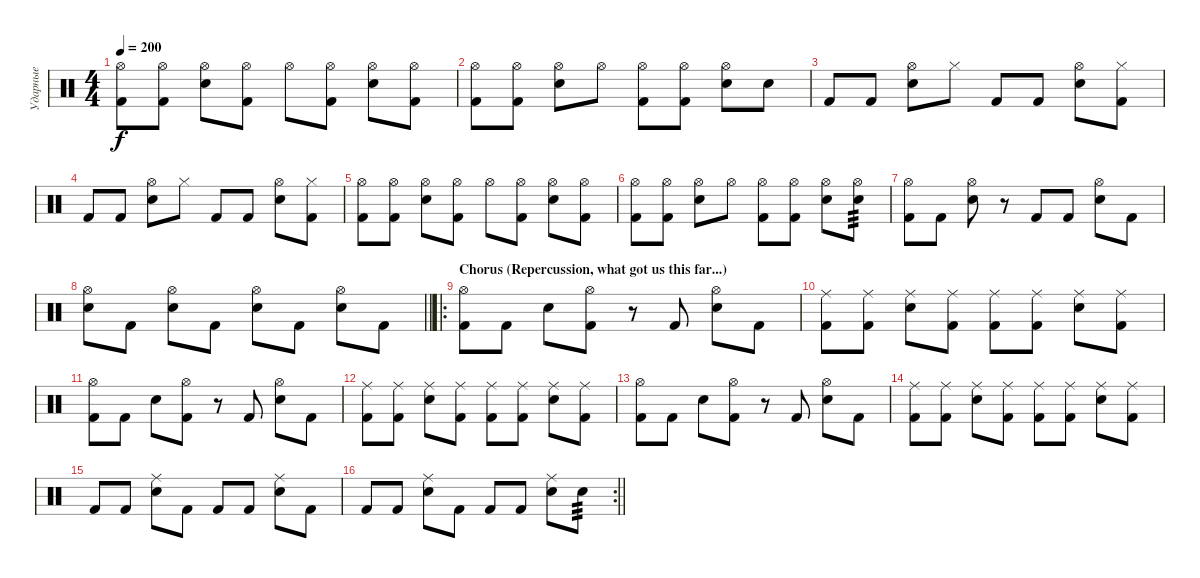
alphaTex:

\track ("Ударные" "Ударные") {instrument percussion}
\staff {score}
\articulation defaults
\ts (4 4)
\tempo 200
\clef neutral
\ks c
("Kick (hit) 2" "Hi-Hat (open)").8{dy f} ("Kick (hit) 2" "Hi-Hat (open)").8 ("Snare (hit) 2" "Hi-Hat (open)").8 ("Kick (hit) 2" "Hi-Hat (open)").8 "Hi-Hat (open)".8 ("Kick (hit) 2" "Hi-Hat (open)").8 ("Snare (hit) 2" "Hi-Hat (open)").8 ("Kick (hit) 2" "Hi-Hat (open)").8 |
("Kick (hit) 2" "Hi-Hat (open)").8 ("Kick (hit) 2" "Hi-Hat (open)").8 ("Snare (hit) 2" "Hi-Hat (open)").8 "Hi-Hat (open)".8 ("Kick (hit) 2" "Hi-Hat (open)").8 ("Kick (hit) 2" "Hi-Hat (open)").8 ("Snare (hit) 2" "Hi-Hat (open)").8 "Snare (hit) 2".8 |
"Kick (hit) 2".8 "Kick (hit) 2".8 ("Snare (hit) 2" "Hi-Hat (open)").8 "Hi-Hat (closed)".8 "Kick (hit) 2".8 "Kick (hit) 2".8 ("Snare (hit) 2" "Hi-Hat (open)").8 ("Kick (hit) 2" "Hi-Hat (closed)").8 |
"Kick (hit) 2".8 "Kick (hit) 2".8 ("Snare (hit) 2" "Hi-Hat (open)").8 "Hi-Hat (closed)".8 "Kick (hit) 2".8 "Kick (hit) 2".8 ("Snare (hit) 2" "Hi-Hat (open)").8 ("Kick (hit) 2" "Hi-Hat (closed)").8 |
("Kick (hit) 2" "Hi-Hat (open)").8 ("Kick (hit) 2" "Hi-Hat (open)").8 ("Snare (hit) 2" "Hi-Hat (open)").8 ("Kick (hit) 2" "Hi-Hat (open)").8 "Hi-Hat (open)".8 ("Kick (hit) 2" "Hi-Hat (open)").8 ("Snare (hit) 2" "Hi-Hat (open)").8 ("Kick (hit) 2" "Hi-Hat (open)").8 |
("Kick (hit) 2" "Hi-Hat (open)").8 ("Kick (hit) 2" "Hi-Hat (open)").8 ("Snare (hit) 2" "Hi-Hat (open)").8 "Hi-Hat (open)".8 ("Kick (hit) 2" "Hi-Hat (open)").8 ("Kick (hit) 2" "Hi-Hat (open)").8 ("Snare (hit) 2" "Hi-Hat (open)").8 ("Snare (hit) 2" "Hi-Hat (open)").8{tp 3} |
("Kick (hit) 2" "Hi-Hat (open)").8 "Kick (hit) 2".8 ("Snare (hit) 2" "Hi-Hat (open)").8 r.8 "Kick (hit) 2".8 "Kick (hit) 2".8 ("Snare (hit) 2" "Hi-Hat (open)").8 "Kick (hit) 2".8 |
\barLineRight lightlight
("Snare (hit) 2" "Hi-Hat (open)").8 "Kick (hit) 2".8 ("Snare (hit) 2" "Hi-Hat (open)").8 "Kick (hit) 2".8 ("Snare (hit) 2" "Hi-Hat (open)").8 "Kick (hit) 2".8 ("Snare (hit) 2" "Hi-Hat (open)").8 "Kick (hit) 2".8 |
\ro
\section ("" "Chorus (Repercussion, what got us this far...)")
("Kick (hit) 2" "Hi-Hat (open)").8 "Kick (hit) 2".8 "Snare (hit) 2".8 ("Kick (hit) 2" "Hi-Hat (open)").8 r.8 "Kick (hit) 2".8 ("Snare (hit) 2" "Hi-Hat (open)").8 "Kick (hit) 2".8 |
("Kick (hit) 2" "Ride (middle)").8 ("Kick (hit) 2" "Ride (middle)").8 ("Snare (hit) 2" "Ride (middle)").8 ("Kick (hit) 2" "Ride (middle)").8 ("Kick (hit) 2" "Ride (middle)").8 ("Kick (hit) 2" "Ride (middle)").8 ("Snare (hit) 2" "Ride (middle)").8 ("Kick (hit) 2" "Ride (middle)").8 |
("Kick (hit) 2" "Hi-Hat (open)").8 "Kick (hit) 2".8 "Snare (hit) 2".8 ("Kick (hit) 2" "Hi-Hat (open)").8 r.8 "Kick (hit) 2".8 ("Snare (hit) 2" "Hi-Hat (open)").8 "Kick (hit) 2".8 |
("Kick (hit) 2" "Ride (middle)").8 ("Kick (hit) 2" "Ride (middle)").8 ("Snare (hit) 2" "Ride (middle)").8 ("Kick (hit) 2" "Ride (middle)").8 ("Kick (hit) 2" "Ride (middle)").8 ("Kick (hit) 2" "Ride (middle)").8 ("Snare (hit) 2" "Ride (middle)").8 ("Kick (hit) 2" "Ride (middle)").8 |
("Kick (hit) 2" "Hi-Hat (open)").8 "Kick (hit) 2".8 "Snare (hit) 2".8 ("Kick (hit) 2" "Hi-Hat (open)").8 r.8 "Kick (hit) 2".8 ("Snare (hit) 2" "Hi-Hat (open)").8 "Kick (hit) 2".8 |
("Kick (hit) 2" "Ride (middle)").8 ("Kick (hit) 2" "Ride (middle)").8 ("Snare (hit) 2" "Ride (middle)").8 ("Kick (hit) 2" "Ride (middle)").8 ("Kick (hit) 2" "Ride (middle)").8 ("Kick (hit) 2" "Ride (middle)").8 ("Snare (hit) 2" "Ride (middle)").8 ("Kick (hit) 2" "Ride (middle)").8 |
"Kick (hit) 2".8 "Kick (hit) 2".8 ("Snare (hit) 2" "Ride (middle)").8 "Kick (hit) 2".8 "Kick (hit) 2".8 "Kick (hit) 2".8 ("Snare (hit) 2" "Ride (middle)").8 "Kick (hit) 2".8 |
\rc 2
\barLineRight lightlight "Kick (hit) 2".8 "Kick (hit) 2".8
("Snare (hit) 2" "Ride (middle)").8 "Kick (hit) 2".8 "Kick (hit) 2".8 "Kick (hit) 2".8 ("Snare (hit) 2" "Ride (middle)").8 "Snare (hit) 2".8{tp 3}
